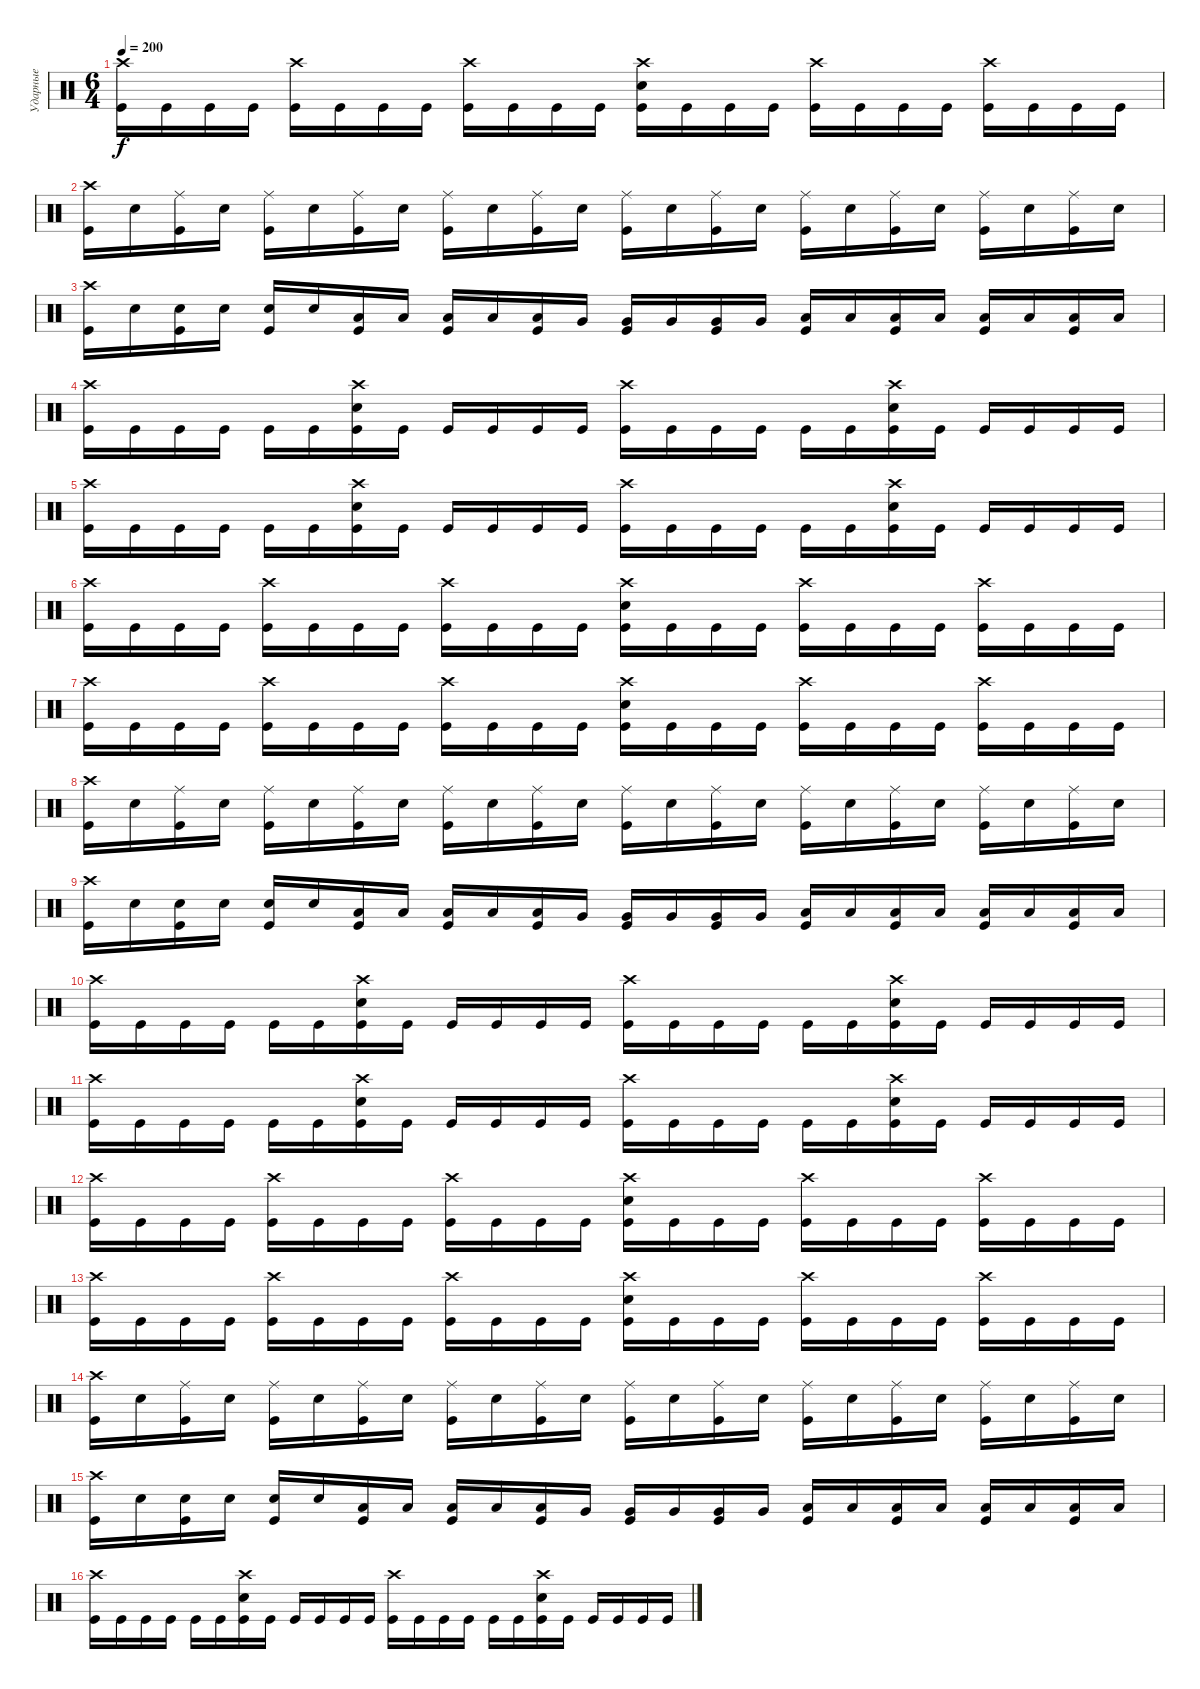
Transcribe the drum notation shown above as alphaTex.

\track ("Ударные" "Ударные") {instrument percussion}
\staff {score}
\articulation defaults
\ts (6 4)
\tempo 200
\clef neutral
\ks c
("Crash high (hit)" "Kick (hit)").16{dy f} "Kick (hit)".16 "Kick (hit)".16 "Kick (hit)".16 ("Crash high (hit)" "Kick (hit)").16 "Kick (hit)".16 "Kick (hit)".16 "Kick (hit)".16 ("Crash high (hit)" "Kick (hit)").16 "Kick (hit)".16 "Kick (hit)".16 "Kick (hit)".16 ("Crash high (hit)" "Snare (hit) 2" "Kick (hit)").16 "Kick (hit)".16 "Kick (hit)".16 "Kick (hit)".16 ("Crash high (hit)" "Kick (hit)").16 "Kick (hit)".16 "Kick (hit)".16 "Kick (hit)".16 ("Crash high (hit)" "Kick (hit)").16 "Kick (hit)".16 "Kick (hit)".16 "Kick (hit)".16 |
("Crash high (hit)" "Kick (hit)").16 "Snare (hit) 2".16 ("Ride (middle)" "Kick (hit)").16 "Snare (hit) 2".16 ("Ride (middle)" "Kick (hit)").16 "Snare (hit) 2".16 ("Ride (middle)" "Kick (hit)").16 "Snare (hit) 2".16 ("Ride (middle)" "Kick (hit)").16 "Snare (hit) 2".16 ("Ride (middle)" "Kick (hit)").16 "Snare (hit) 2".16 ("Ride (middle)" "Kick (hit)").16 "Snare (hit) 2".16 ("Ride (middle)" "Kick (hit)").16 "Snare (hit) 2".16 ("Ride (middle)" "Kick (hit)").16 "Snare (hit) 2".16 ("Ride (middle)" "Kick (hit)").16 "Snare (hit) 2".16 ("Ride (middle)" "Kick (hit)").16 "Snare (hit) 2".16 ("Ride (middle)" "Kick (hit)").16 "Snare (hit) 2".16 |
("Crash high (hit)" "Kick (hit)").16 "Snare (hit) 2".16 ("Snare (hit) 2" "Kick (hit)").16 "Snare (hit) 2".16 ("Snare (hit) 2" "Kick (hit)").16 "Snare (hit) 2".16 ("Low Tom (hit)" "Kick (hit)").16 "Low Tom (hit)".16 ("Low Tom (hit)" "Kick (hit)").16 "Low Tom (hit)".16 ("Low Tom (hit)" "Kick (hit)").16 "Very Low Tom (hit)".16 ("Very Low Tom (hit)" "Kick (hit)").16 "Very Low Tom (hit)".16 ("Very Low Tom (hit)" "Kick (hit)").16 "Very Low Tom (hit)".16 ("Low Floor Tom (hit)" "Kick (hit)").16 "Low Floor Tom (hit)".16 ("Low Floor Tom (hit)" "Kick (hit)").16 "Low Floor Tom (hit)".16 ("Low Floor Tom (hit)" "Kick (hit)").16 "Low Floor Tom (hit)".16 ("Low Floor Tom (hit)" "Kick (hit)").16 "Low Floor Tom (hit)".16 |
("Crash high (hit)" "Kick (hit)").16 "Kick (hit)".16 "Kick (hit)".16 "Kick (hit)".16 "Kick (hit)".16 "Kick (hit)".16 ("Crash high (hit)" "Snare (hit) 2" "Kick (hit)").16 "Kick (hit)".16 "Kick (hit)".16 "Kick (hit)".16 "Kick (hit)".16 "Kick (hit)".16 ("Crash high (hit)" "Kick (hit)").16 "Kick (hit)".16 "Kick (hit)".16 "Kick (hit)".16 "Kick (hit)".16 "Kick (hit)".16 ("Crash high (hit)" "Snare (hit) 2" "Kick (hit)").16 "Kick (hit)".16 "Kick (hit)".16 "Kick (hit)".16 "Kick (hit)".16 "Kick (hit)".16 |
("Crash high (hit)" "Kick (hit)").16 "Kick (hit)".16 "Kick (hit)".16 "Kick (hit)".16 "Kick (hit)".16 "Kick (hit)".16 ("Crash high (hit)" "Snare (hit) 2" "Kick (hit)").16 "Kick (hit)".16 "Kick (hit)".16 "Kick (hit)".16 "Kick (hit)".16 "Kick (hit)".16 ("Crash high (hit)" "Kick (hit)").16 "Kick (hit)".16 "Kick (hit)".16 "Kick (hit)".16 "Kick (hit)".16 "Kick (hit)".16 ("Crash high (hit)" "Snare (hit) 2" "Kick (hit)").16 "Kick (hit)".16 "Kick (hit)".16 "Kick (hit)".16 "Kick (hit)".16 "Kick (hit)".16 |
("Crash high (hit)" "Kick (hit)").16 "Kick (hit)".16 "Kick (hit)".16 "Kick (hit)".16 ("Crash high (hit)" "Kick (hit)").16 "Kick (hit)".16 "Kick (hit)".16 "Kick (hit)".16 ("Crash high (hit)" "Kick (hit)").16 "Kick (hit)".16 "Kick (hit)".16 "Kick (hit)".16 ("Crash high (hit)" "Snare (hit) 2" "Kick (hit)").16 "Kick (hit)".16 "Kick (hit)".16 "Kick (hit)".16 ("Crash high (hit)" "Kick (hit)").16 "Kick (hit)".16 "Kick (hit)".16 "Kick (hit)".16 ("Crash high (hit)" "Kick (hit)").16 "Kick (hit)".16 "Kick (hit)".16 "Kick (hit)".16 |
("Crash high (hit)" "Kick (hit)").16 "Kick (hit)".16 "Kick (hit)".16 "Kick (hit)".16 ("Crash high (hit)" "Kick (hit)").16 "Kick (hit)".16 "Kick (hit)".16 "Kick (hit)".16 ("Crash high (hit)" "Kick (hit)").16 "Kick (hit)".16 "Kick (hit)".16 "Kick (hit)".16 ("Crash high (hit)" "Snare (hit) 2" "Kick (hit)").16 "Kick (hit)".16 "Kick (hit)".16 "Kick (hit)".16 ("Crash high (hit)" "Kick (hit)").16 "Kick (hit)".16 "Kick (hit)".16 "Kick (hit)".16 ("Crash high (hit)" "Kick (hit)").16 "Kick (hit)".16 "Kick (hit)".16 "Kick (hit)".16 |
("Crash high (hit)" "Kick (hit)").16 "Snare (hit) 2".16 ("Ride (middle)" "Kick (hit)").16 "Snare (hit) 2".16 ("Ride (middle)" "Kick (hit)").16 "Snare (hit) 2".16 ("Ride (middle)" "Kick (hit)").16 "Snare (hit) 2".16 ("Ride (middle)" "Kick (hit)").16 "Snare (hit) 2".16 ("Ride (middle)" "Kick (hit)").16 "Snare (hit) 2".16 ("Ride (middle)" "Kick (hit)").16 "Snare (hit) 2".16 ("Ride (middle)" "Kick (hit)").16 "Snare (hit) 2".16 ("Ride (middle)" "Kick (hit)").16 "Snare (hit) 2".16 ("Ride (middle)" "Kick (hit)").16 "Snare (hit) 2".16 ("Ride (middle)" "Kick (hit)").16 "Snare (hit) 2".16 ("Ride (middle)" "Kick (hit)").16 "Snare (hit) 2".16 |
("Crash high (hit)" "Kick (hit)").16 "Snare (hit) 2".16 ("Snare (hit) 2" "Kick (hit)").16 "Snare (hit) 2".16 ("Snare (hit) 2" "Kick (hit)").16 "Snare (hit) 2".16 ("Low Tom (hit)" "Kick (hit)").16 "Low Tom (hit)".16 ("Low Tom (hit)" "Kick (hit)").16 "Low Tom (hit)".16 ("Low Tom (hit)" "Kick (hit)").16 "Very Low Tom (hit)".16 ("Very Low Tom (hit)" "Kick (hit)").16 "Very Low Tom (hit)".16 ("Very Low Tom (hit)" "Kick (hit)").16 "Very Low Tom (hit)".16 ("Low Floor Tom (hit)" "Kick (hit)").16 "Low Floor Tom (hit)".16 ("Low Floor Tom (hit)" "Kick (hit)").16 "Low Floor Tom (hit)".16 ("Low Floor Tom (hit)" "Kick (hit)").16 "Low Floor Tom (hit)".16 ("Low Floor Tom (hit)" "Kick (hit)").16 "Low Floor Tom (hit)".16 |
("Crash high (hit)" "Kick (hit)").16 "Kick (hit)".16 "Kick (hit)".16 "Kick (hit)".16 "Kick (hit)".16 "Kick (hit)".16 ("Crash high (hit)" "Snare (hit) 2" "Kick (hit)").16 "Kick (hit)".16 "Kick (hit)".16 "Kick (hit)".16 "Kick (hit)".16 "Kick (hit)".16 ("Crash high (hit)" "Kick (hit)").16 "Kick (hit)".16 "Kick (hit)".16 "Kick (hit)".16 "Kick (hit)".16 "Kick (hit)".16 ("Crash high (hit)" "Snare (hit) 2" "Kick (hit)").16 "Kick (hit)".16 "Kick (hit)".16 "Kick (hit)".16 "Kick (hit)".16 "Kick (hit)".16 |
("Crash high (hit)" "Kick (hit)").16 "Kick (hit)".16 "Kick (hit)".16 "Kick (hit)".16 "Kick (hit)".16 "Kick (hit)".16 ("Crash high (hit)" "Snare (hit) 2" "Kick (hit)").16 "Kick (hit)".16 "Kick (hit)".16 "Kick (hit)".16 "Kick (hit)".16 "Kick (hit)".16 ("Crash high (hit)" "Kick (hit)").16 "Kick (hit)".16 "Kick (hit)".16 "Kick (hit)".16 "Kick (hit)".16 "Kick (hit)".16 ("Crash high (hit)" "Snare (hit) 2" "Kick (hit)").16 "Kick (hit)".16 "Kick (hit)".16 "Kick (hit)".16 "Kick (hit)".16 "Kick (hit)".16 |
("Crash high (hit)" "Kick (hit)").16 "Kick (hit)".16 "Kick (hit)".16 "Kick (hit)".16 ("Crash high (hit)" "Kick (hit)").16 "Kick (hit)".16 "Kick (hit)".16 "Kick (hit)".16 ("Crash high (hit)" "Kick (hit)").16 "Kick (hit)".16 "Kick (hit)".16 "Kick (hit)".16 ("Crash high (hit)" "Snare (hit) 2" "Kick (hit)").16 "Kick (hit)".16 "Kick (hit)".16 "Kick (hit)".16 ("Crash high (hit)" "Kick (hit)").16 "Kick (hit)".16 "Kick (hit)".16 "Kick (hit)".16 ("Crash high (hit)" "Kick (hit)").16 "Kick (hit)".16 "Kick (hit)".16 "Kick (hit)".16 |
("Crash high (hit)" "Kick (hit)").16 "Kick (hit)".16 "Kick (hit)".16 "Kick (hit)".16 ("Crash high (hit)" "Kick (hit)").16 "Kick (hit)".16 "Kick (hit)".16 "Kick (hit)".16 ("Crash high (hit)" "Kick (hit)").16 "Kick (hit)".16 "Kick (hit)".16 "Kick (hit)".16 ("Crash high (hit)" "Snare (hit) 2" "Kick (hit)").16 "Kick (hit)".16 "Kick (hit)".16 "Kick (hit)".16 ("Crash high (hit)" "Kick (hit)").16 "Kick (hit)".16 "Kick (hit)".16 "Kick (hit)".16 ("Crash high (hit)" "Kick (hit)").16 "Kick (hit)".16 "Kick (hit)".16 "Kick (hit)".16 |
("Crash high (hit)" "Kick (hit)").16 "Snare (hit) 2".16 ("Ride (middle)" "Kick (hit)").16 "Snare (hit) 2".16 ("Ride (middle)" "Kick (hit)").16 "Snare (hit) 2".16 ("Ride (middle)" "Kick (hit)").16 "Snare (hit) 2".16 ("Ride (middle)" "Kick (hit)").16 "Snare (hit) 2".16 ("Ride (middle)" "Kick (hit)").16 "Snare (hit) 2".16 ("Ride (middle)" "Kick (hit)").16 "Snare (hit) 2".16 ("Ride (middle)" "Kick (hit)").16 "Snare (hit) 2".16 ("Ride (middle)" "Kick (hit)").16 "Snare (hit) 2".16 ("Ride (middle)" "Kick (hit)").16 "Snare (hit) 2".16 ("Ride (middle)" "Kick (hit)").16 "Snare (hit) 2".16 ("Ride (middle)" "Kick (hit)").16 "Snare (hit) 2".16 |
("Crash high (hit)" "Kick (hit)").16 "Snare (hit) 2".16 ("Snare (hit) 2" "Kick (hit)").16 "Snare (hit) 2".16 ("Snare (hit) 2" "Kick (hit)").16 "Snare (hit) 2".16 ("Low Tom (hit)" "Kick (hit)").16 "Low Tom (hit)".16 ("Low Tom (hit)" "Kick (hit)").16 "Low Tom (hit)".16 ("Low Tom (hit)" "Kick (hit)").16 "Very Low Tom (hit)".16 ("Very Low Tom (hit)" "Kick (hit)").16 "Very Low Tom (hit)".16 ("Very Low Tom (hit)" "Kick (hit)").16 "Very Low Tom (hit)".16 ("Low Floor Tom (hit)" "Kick (hit)").16 "Low Floor Tom (hit)".16 ("Low Floor Tom (hit)" "Kick (hit)").16 "Low Floor Tom (hit)".16 ("Low Floor Tom (hit)" "Kick (hit)").16 "Low Floor Tom (hit)".16 ("Low Floor Tom (hit)" "Kick (hit)").16 "Low Floor Tom (hit)".16 |
("Crash high (hit)" "Kick (hit)").16 "Kick (hit)".16 "Kick (hit)".16 "Kick (hit)".16 "Kick (hit)".16 "Kick (hit)".16 ("Crash high (hit)" "Snare (hit) 2" "Kick (hit)").16 "Kick (hit)".16 "Kick (hit)".16 "Kick (hit)".16 "Kick (hit)".16 "Kick (hit)".16 ("Crash high (hit)" "Kick (hit)").16 "Kick (hit)".16 "Kick (hit)".16 "Kick (hit)".16 "Kick (hit)".16 "Kick (hit)".16 ("Crash high (hit)" "Snare (hit) 2" "Kick (hit)").16 "Kick (hit)".16 "Kick (hit)".16 "Kick (hit)".16 "Kick (hit)".16 "Kick (hit)".16
